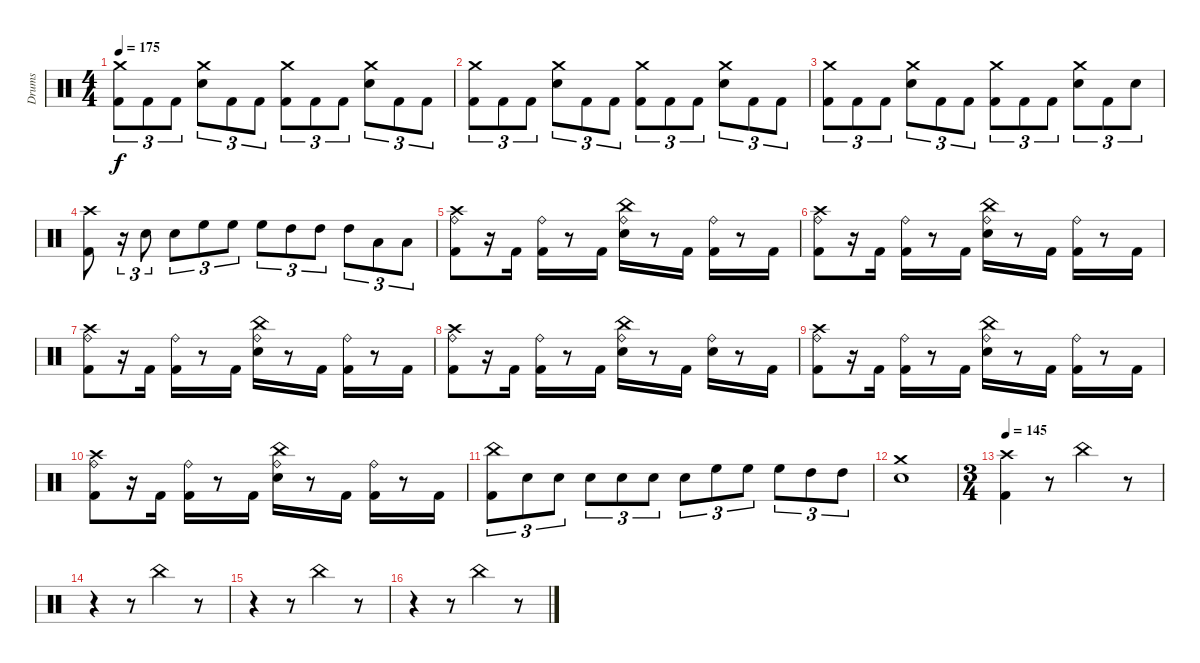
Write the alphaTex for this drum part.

\track ("Drums" "Drums") {instrument percussion}
\staff {score}
\articulation defaults
\ts (4 4)
\tempo 175
\clef neutral
\ks c
("Crash medium (hit)" "Kick (hit) 2").8{tu (3 2) dy f} "Kick (hit) 2".8{tu (3 2)} "Kick (hit) 2".8{tu (3 2)} ("Crash medium (hit)" "Electric Snare (hit)").8{tu (3 2)} "Kick (hit) 2".8{tu (3 2)} "Kick (hit) 2".8{tu (3 2)} ("Crash medium (hit)" "Kick (hit) 2").8{tu (3 2)} "Kick (hit) 2".8{tu (3 2)} "Kick (hit) 2".8{tu (3 2)} ("Crash medium (hit)" "Electric Snare (hit)").8{tu (3 2)} "Kick (hit) 2".8{tu (3 2)} "Kick (hit) 2".8{tu (3 2)} |
("Crash medium (hit)" "Kick (hit) 2").8{tu (3 2)} "Kick (hit) 2".8{tu (3 2)} "Kick (hit) 2".8{tu (3 2)} ("Crash medium (hit)" "Electric Snare (hit)").8{tu (3 2)} "Kick (hit) 2".8{tu (3 2)} "Kick (hit) 2".8{tu (3 2)} ("Crash medium (hit)" "Kick (hit) 2").8{tu (3 2)} "Kick (hit) 2".8{tu (3 2)} "Kick (hit) 2".8{tu (3 2)} ("Crash medium (hit)" "Electric Snare (hit)").8{tu (3 2)} "Kick (hit) 2".8{tu (3 2)} "Kick (hit) 2".8{tu (3 2)} |
("Crash medium (hit)" "Kick (hit) 2").8{tu (3 2)} "Kick (hit) 2".8{tu (3 2)} "Kick (hit) 2".8{tu (3 2)} ("Crash medium (hit)" "Electric Snare (hit)").8{tu (3 2)} "Kick (hit) 2".8{tu (3 2)} "Kick (hit) 2".8{tu (3 2)} ("Crash medium (hit)" "Kick (hit) 2").8{tu (3 2)} "Kick (hit) 2".8{tu (3 2)} "Kick (hit) 2".8{tu (3 2)} ("Crash medium (hit)" "Electric Snare (hit)").8{tu (3 2)} "Kick (hit) 2".8{tu (3 2)} "Electric Snare (hit)".8{tu (3 2)} |
("Crash high (hit)" "Kick (hit) 2").8 r.16{tu (3 2)} "Electric Snare (hit)".8{tu (3 2)} "Electric Snare (hit)".8{tu (3 2)} "High Floor Tom (hit)".8{tu (3 2)} "High Floor Tom (hit)".8{tu (3 2)} "High Floor Tom (hit)".8{tu (3 2)} "High Tom (hit)".8{tu (3 2)} "High Tom (hit)".8{tu (3 2)} "High Tom (hit)".8{tu (3 2)} "Low Floor Tom (hit)".8{tu (3 2)} "Low Floor Tom (hit)".8{tu (3 2)} |
("Crash high (hit)" "Ride (bell)" "Kick (hit) 2").8 r.16 "Kick (hit) 2".16 ("Ride (bell)" "Kick (hit) 2").16 r.8 "Kick (hit) 2".16 ("China (hit)" "Ride (bell)" "Electric Snare (hit)").16 r.8 "Kick (hit) 2".16 ("Ride (bell)" "Kick (hit) 2").16 r.8 "Kick (hit) 2".16 |
("Crash high (hit)" "Ride (bell)" "Kick (hit) 2").8 r.16 "Kick (hit) 2".16 ("Ride (bell)" "Kick (hit) 2").16 r.8 "Kick (hit) 2".16 ("China (hit)" "Ride (bell)" "Electric Snare (hit)").16 r.8 "Kick (hit) 2".16 ("Ride (bell)" "Kick (hit) 2").16 r.8 "Kick (hit) 2".16 |
("Crash high (hit)" "Ride (bell)" "Kick (hit) 2").8 r.16 "Kick (hit) 2".16 ("Ride (bell)" "Kick (hit) 2").16 r.8 "Kick (hit) 2".16 ("China (hit)" "Ride (bell)" "Electric Snare (hit)").16 r.8 "Kick (hit) 2".16 ("Ride (bell)" "Kick (hit) 2").16 r.8 "Kick (hit) 2".16 |
("Crash high (hit)" "Ride (bell)" "Kick (hit) 2").8 r.16 "Kick (hit) 2".16 ("Ride (bell)" "Kick (hit) 2").16 r.8 "Kick (hit) 2".16 ("China (hit)" "Ride (bell)" "Electric Snare (hit)").16 r.8 "Kick (hit) 2".16 ("Ride (bell)" "Electric Snare (hit)").16 r.8 "Kick (hit) 2".16 |
("Crash high (hit)" "Ride (bell)" "Kick (hit) 2").8 r.16 "Kick (hit) 2".16 ("Ride (bell)" "Kick (hit) 2").16 r.8 "Kick (hit) 2".16 ("China (hit)" "Ride (bell)" "Electric Snare (hit)").16 r.8 "Kick (hit) 2".16 ("Ride (bell)" "Kick (hit) 2").16 r.8 "Kick (hit) 2".16 |
("Crash high (hit)" "Ride (bell)" "Kick (hit) 2").8 r.16 "Kick (hit) 2".16 ("Ride (bell)" "Kick (hit) 2").16 r.8 "Kick (hit) 2".16 ("China (hit)" "Ride (bell)" "Electric Snare (hit)").16 r.8 "Kick (hit) 2".16 ("Ride (bell)" "Kick (hit) 2").16 r.8 "Kick (hit) 2".16 |
("China (hit)" "Kick (hit) 2").8{tu (3 2)} "Electric Snare (hit)".8{tu (3 2)} "Electric Snare (hit)".8{tu (3 2)} "Electric Snare (hit)".8{tu (3 2)} "Electric Snare (hit)".8{tu (3 2)} "Electric Snare (hit)".8{tu (3 2)} "Electric Snare (hit)".8{tu (3 2)} "High Floor Tom (hit)".8{tu (3 2)} "High Floor Tom (hit)".8{tu (3 2)} "High Floor Tom (hit)".8{tu (3 2)} "High Tom (hit)".8{tu (3 2)} "High Tom (hit)".8{tu (3 2)} |
("Crash medium (hit)" "Electric Snare (hit)").1 |
\ts (3 4)
\tempo 145
("Crash high (hit)" "Kick (hit) 2").4 r.8 "China (hit)".4 r.8 |
r.4 r.8 "China (hit)".4 r.8 |
r.4 r.8 "China (hit)".4 r.8 |
r.4 r.8 "China (hit)".4 r.8
